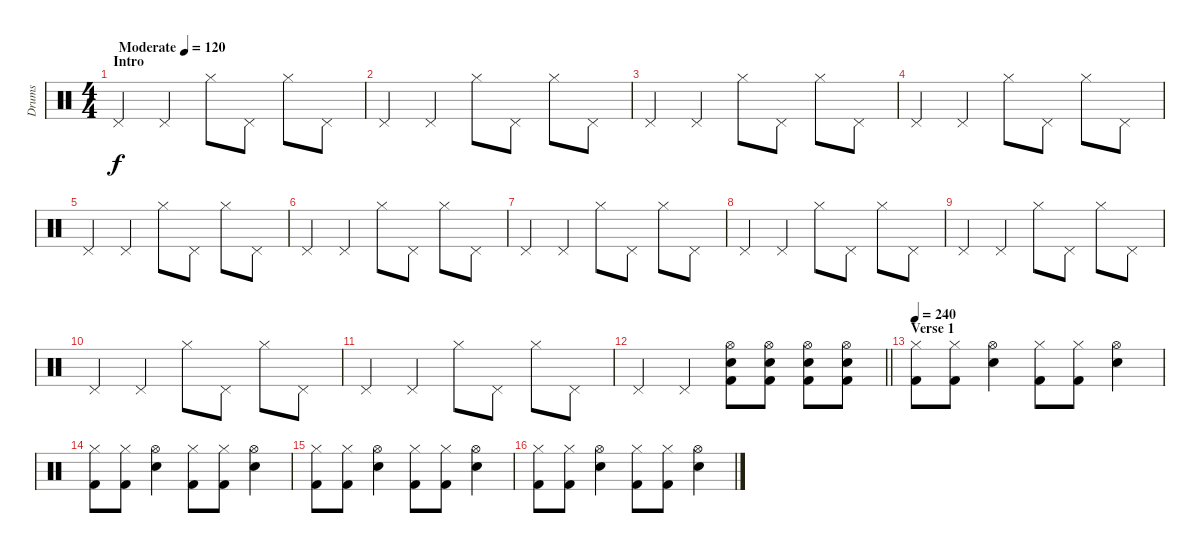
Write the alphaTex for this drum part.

\track ("Drums" "Drums") {instrument percussion}
\staff {score}
\articulation defaults
\ts (4 4)
\section ("" "Intro")
\tempo (120 "Moderate")
\clef neutral
\ks c "Pedal Hi-Hat (hit)".4{dy f volume 4} "Pedal Hi-Hat (hit)".4 "Hi-Hat (closed)".8 "Pedal Hi-Hat (hit)".8 "Hi-Hat (closed)".8 "Pedal Hi-Hat (hit)".8
|
"Pedal Hi-Hat (hit)".4 "Pedal Hi-Hat (hit)".4 "Hi-Hat (closed)".8 "Pedal Hi-Hat (hit)".8 "Hi-Hat (closed)".8 "Pedal Hi-Hat (hit)".8 |
"Pedal Hi-Hat (hit)".4 "Pedal Hi-Hat (hit)".4 "Hi-Hat (closed)".8 "Pedal Hi-Hat (hit)".8 "Hi-Hat (closed)".8 "Pedal Hi-Hat (hit)".8 |
"Pedal Hi-Hat (hit)".4 "Pedal Hi-Hat (hit)".4 "Hi-Hat (closed)".8 "Pedal Hi-Hat (hit)".8 "Hi-Hat (closed)".8 "Pedal Hi-Hat (hit)".8 |
"Pedal Hi-Hat (hit)".4 "Pedal Hi-Hat (hit)".4 "Hi-Hat (closed)".8 "Pedal Hi-Hat (hit)".8 "Hi-Hat (closed)".8 "Pedal Hi-Hat (hit)".8 |
"Pedal Hi-Hat (hit)".4 "Pedal Hi-Hat (hit)".4 "Hi-Hat (closed)".8 "Pedal Hi-Hat (hit)".8 "Hi-Hat (closed)".8 "Pedal Hi-Hat (hit)".8 |
"Pedal Hi-Hat (hit)".4 "Pedal Hi-Hat (hit)".4 "Hi-Hat (closed)".8 "Pedal Hi-Hat (hit)".8 "Hi-Hat (closed)".8 "Pedal Hi-Hat (hit)".8 |
"Pedal Hi-Hat (hit)".4 "Pedal Hi-Hat (hit)".4 "Hi-Hat (closed)".8 "Pedal Hi-Hat (hit)".8 "Hi-Hat (closed)".8 "Pedal Hi-Hat (hit)".8 |
"Pedal Hi-Hat (hit)".4 "Pedal Hi-Hat (hit)".4 "Hi-Hat (closed)".8 "Pedal Hi-Hat (hit)".8 "Hi-Hat (closed)".8 "Pedal Hi-Hat (hit)".8 |
"Pedal Hi-Hat (hit)".4 "Pedal Hi-Hat (hit)".4 "Hi-Hat (closed)".8 "Pedal Hi-Hat (hit)".8 "Hi-Hat (closed)".8 "Pedal Hi-Hat (hit)".8 |
"Pedal Hi-Hat (hit)".4 "Pedal Hi-Hat (hit)".4 "Hi-Hat (closed)".8 "Pedal Hi-Hat (hit)".8 "Hi-Hat (closed)".8 "Pedal Hi-Hat (hit)".8 |
\barLineRight lightlight "Pedal Hi-Hat (hit)".4 "Pedal Hi-Hat (hit)".4
("Hi-Hat (open)" "Snare (hit) 2" "Kick (hit) 2").8{volume 13} ("Hi-Hat (open)" "Snare (hit) 2" "Kick (hit) 2").8 ("Hi-Hat (open)" "Snare (hit) 2" "Kick (hit) 2").8 ("Hi-Hat (open)" "Snare (hit) 2" "Kick (hit) 2").8 |
\section ("" "Verse 1")
\tempo 240
("Hi-Hat (closed)" "Kick (hit) 2").8 ("Hi-Hat (closed)" "Kick (hit) 2").8 ("Hi-Hat (open)" "Snare (hit) 2").4 ("Hi-Hat (closed)" "Kick (hit) 2").8 ("Hi-Hat (closed)" "Kick (hit) 2").8 ("Hi-Hat (open)" "Snare (hit) 2").4 |
("Hi-Hat (closed)" "Kick (hit) 2").8 ("Hi-Hat (closed)" "Kick (hit) 2").8 ("Hi-Hat (open)" "Snare (hit) 2").4 ("Hi-Hat (closed)" "Kick (hit) 2").8 ("Hi-Hat (closed)" "Kick (hit) 2").8 ("Hi-Hat (open)" "Snare (hit) 2").4 |
("Hi-Hat (closed)" "Kick (hit) 2").8 ("Hi-Hat (closed)" "Kick (hit) 2").8 ("Hi-Hat (open)" "Snare (hit) 2").4 ("Hi-Hat (closed)" "Kick (hit) 2").8 ("Hi-Hat (closed)" "Kick (hit) 2").8 ("Hi-Hat (open)" "Snare (hit) 2").4 |
("Hi-Hat (closed)" "Kick (hit) 2").8 ("Hi-Hat (closed)" "Kick (hit) 2").8 ("Hi-Hat (open)" "Snare (hit) 2").4 ("Hi-Hat (closed)" "Kick (hit) 2").8 ("Hi-Hat (closed)" "Kick (hit) 2").8 ("Hi-Hat (open)" "Snare (hit) 2").4
